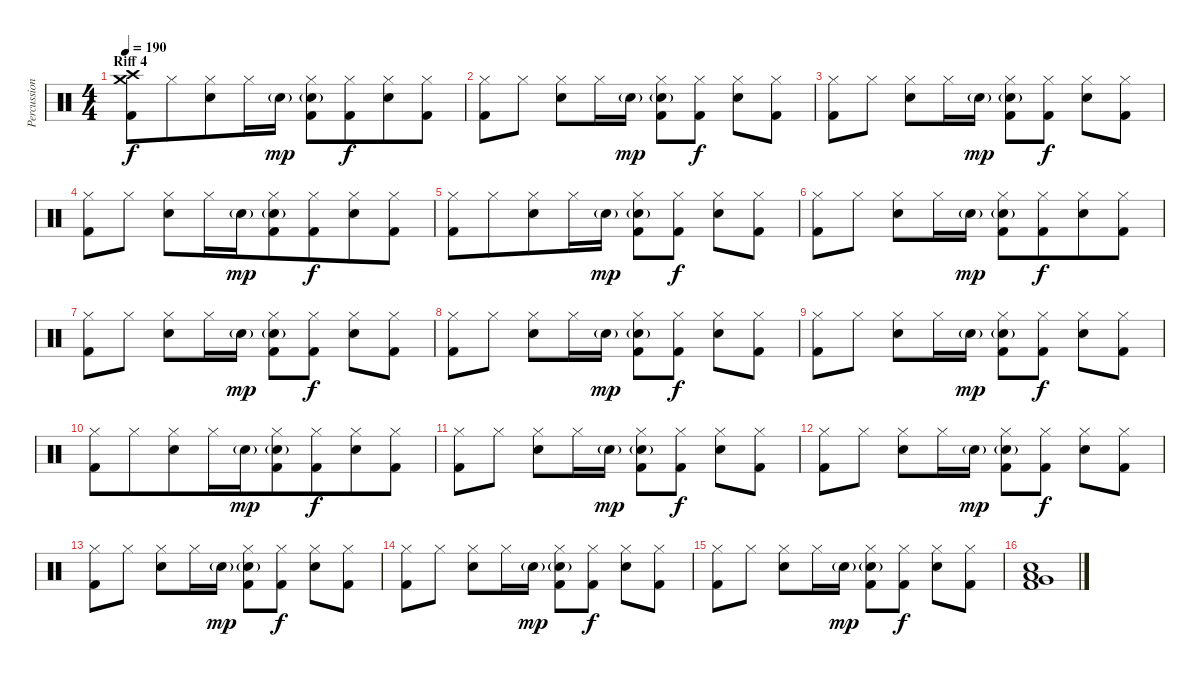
\track ("Percussion" "Percussion") {instrument percussion}
\staff {score}
\articulation defaults
\ts (4 4)
\section ("" "Riff 4")
\tempo 190
\clef neutral
\ks c
("Crash medium (hit)" "Crash high (hit)" "Kick (hit) 2").8{dy f beam merge} "Hi-Hat (closed)".8{beam merge} ("Hi-Hat (closed)" "Electric Snare (hit)").8 "Hi-Hat (closed)".16 "Electric Snare (hit)"{g}.16{dy mp} ("Hi-Hat (closed)" "Electric Snare (hit)"{g} "Kick (hit) 2").8 ("Hi-Hat (closed)" "Kick (hit) 2").8{dy f beam merge} ("Hi-Hat (closed)" "Electric Snare (hit)").8 ("Hi-Hat (closed)" "Kick (hit) 2").8 |
("Hi-Hat (closed)" "Kick (hit) 2").8 "Hi-Hat (closed)".8 ("Hi-Hat (closed)" "Electric Snare (hit)").8 "Hi-Hat (closed)".16 "Electric Snare (hit)"{g}.16{dy mp} ("Hi-Hat (closed)" "Electric Snare (hit)"{g} "Kick (hit) 2").8 ("Hi-Hat (closed)" "Kick (hit) 2").8{dy f} ("Hi-Hat (closed)" "Electric Snare (hit)").8 ("Hi-Hat (closed)" "Kick (hit) 2").8 |
("Hi-Hat (closed)" "Kick (hit) 2").8 "Hi-Hat (closed)".8 ("Hi-Hat (closed)" "Electric Snare (hit)").8 "Hi-Hat (closed)".16{beam merge} "Electric Snare (hit)"{g}.16{dy mp} ("Hi-Hat (closed)" "Electric Snare (hit)"{g} "Kick (hit) 2").8{beam merge} ("Hi-Hat (closed)" "Kick (hit) 2").8{dy f} ("Hi-Hat (closed)" "Electric Snare (hit)").8 ("Hi-Hat (closed)" "Kick (hit) 2").8 |
("Hi-Hat (closed)" "Kick (hit) 2").8 "Hi-Hat (closed)".8 ("Hi-Hat (closed)" "Electric Snare (hit)").8{beam merge} "Hi-Hat (closed)".16{beam merge} "Electric Snare (hit)"{g}.16{dy mp beam merge} ("Hi-Hat (closed)" "Electric Snare (hit)"{g} "Kick (hit) 2").8 ("Hi-Hat (closed)" "Kick (hit) 2").8{dy f beam merge} ("Hi-Hat (closed)" "Electric Snare (hit)").8{beam merge} ("Hi-Hat (closed)" "Kick (hit) 2").8 |
("Hi-Hat (closed)" "Kick (hit) 2").8{beam merge} "Hi-Hat (closed)".8{beam merge} ("Hi-Hat (closed)" "Electric Snare (hit)").8{beam merge} "Hi-Hat (closed)".16{beam merge} "Electric Snare (hit)"{g}.16{dy mp} ("Hi-Hat (closed)" "Electric Snare (hit)"{g} "Kick (hit) 2").8 ("Hi-Hat (closed)" "Kick (hit) 2").8{dy f} ("Hi-Hat (closed)" "Electric Snare (hit)").8 ("Hi-Hat (closed)" "Kick (hit) 2").8 |
("Hi-Hat (closed)" "Kick (hit) 2").8{beam merge} "Hi-Hat (closed)".8 ("Hi-Hat (closed)" "Electric Snare (hit)").8{beam merge} "Hi-Hat (closed)".16 "Electric Snare (hit)"{g}.16{dy mp} ("Hi-Hat (closed)" "Electric Snare (hit)"{g} "Kick (hit) 2").8 ("Hi-Hat (closed)" "Kick (hit) 2").8{dy f beam merge} ("Hi-Hat (closed)" "Electric Snare (hit)").8{beam merge} ("Hi-Hat (closed)" "Kick (hit) 2").8 |
("Hi-Hat (closed)" "Kick (hit) 2").8 "Hi-Hat (closed)".8 ("Hi-Hat (closed)" "Electric Snare (hit)").8 "Hi-Hat (closed)".16 "Electric Snare (hit)"{g}.16{dy mp} ("Hi-Hat (closed)" "Electric Snare (hit)"{g} "Kick (hit) 2").8 ("Hi-Hat (closed)" "Kick (hit) 2").8{dy f} ("Hi-Hat (closed)" "Electric Snare (hit)").8 ("Hi-Hat (closed)" "Kick (hit) 2").8 |
("Hi-Hat (closed)" "Kick (hit) 2").8 "Hi-Hat (closed)".8 ("Hi-Hat (closed)" "Electric Snare (hit)").8 "Hi-Hat (closed)".16 "Electric Snare (hit)"{g}.16{dy mp} ("Hi-Hat (closed)" "Electric Snare (hit)"{g} "Kick (hit) 2").8 ("Hi-Hat (closed)" "Kick (hit) 2").8{dy f} ("Hi-Hat (closed)" "Electric Snare (hit)").8 ("Hi-Hat (closed)" "Kick (hit) 2").8 |
("Hi-Hat (closed)" "Kick (hit) 2").8 "Hi-Hat (closed)".8 ("Hi-Hat (closed)" "Electric Snare (hit)").8 "Hi-Hat (closed)".16 "Electric Snare (hit)"{g}.16{dy mp} ("Hi-Hat (closed)" "Electric Snare (hit)"{g} "Kick (hit) 2").8 ("Hi-Hat (closed)" "Kick (hit) 2").8{dy f} ("Hi-Hat (closed)" "Electric Snare (hit)").8 ("Hi-Hat (closed)" "Kick (hit) 2").8 |
("Hi-Hat (closed)" "Kick (hit) 2").8{beam merge} "Hi-Hat (closed)".8{beam merge} ("Hi-Hat (closed)" "Electric Snare (hit)").8{beam merge} "Hi-Hat (closed)".16{beam merge} "Electric Snare (hit)"{g}.16{dy mp beam merge} ("Hi-Hat (closed)" "Electric Snare (hit)"{g} "Kick (hit) 2").8{beam merge} ("Hi-Hat (closed)" "Kick (hit) 2").8{dy f beam merge} ("Hi-Hat (closed)" "Electric Snare (hit)").8{beam merge} ("Hi-Hat (closed)" "Kick (hit) 2").8 |
("Hi-Hat (closed)" "Kick (hit) 2").8 "Hi-Hat (closed)".8 ("Hi-Hat (closed)" "Electric Snare (hit)").8 "Hi-Hat (closed)".16 "Electric Snare (hit)"{g}.16{dy mp} ("Hi-Hat (closed)" "Electric Snare (hit)"{g} "Kick (hit) 2").8 ("Hi-Hat (closed)" "Kick (hit) 2").8{dy f} ("Hi-Hat (closed)" "Electric Snare (hit)").8 ("Hi-Hat (closed)" "Kick (hit) 2").8 |
("Hi-Hat (closed)" "Kick (hit) 2").8 "Hi-Hat (closed)".8 ("Hi-Hat (closed)" "Electric Snare (hit)").8 "Hi-Hat (closed)".16 "Electric Snare (hit)"{g}.16{dy mp} ("Hi-Hat (closed)" "Electric Snare (hit)"{g} "Kick (hit) 2").8 ("Hi-Hat (closed)" "Kick (hit) 2").8{dy f} ("Hi-Hat (closed)" "Electric Snare (hit)").8 ("Hi-Hat (closed)" "Kick (hit) 2").8 |
("Hi-Hat (closed)" "Kick (hit) 2").8 "Hi-Hat (closed)".8 ("Hi-Hat (closed)" "Electric Snare (hit)").8 "Hi-Hat (closed)".16 "Electric Snare (hit)"{g}.16{dy mp} ("Hi-Hat (closed)" "Electric Snare (hit)"{g} "Kick (hit) 2").8 ("Hi-Hat (closed)" "Kick (hit) 2").8{dy f} ("Hi-Hat (closed)" "Electric Snare (hit)").8 ("Hi-Hat (closed)" "Kick (hit) 2").8 |
("Hi-Hat (closed)" "Kick (hit) 2").8 "Hi-Hat (closed)".8 ("Hi-Hat (closed)" "Electric Snare (hit)").8 "Hi-Hat (closed)".16 "Electric Snare (hit)"{g}.16{dy mp} ("Hi-Hat (closed)" "Electric Snare (hit)"{g} "Kick (hit) 2").8 ("Hi-Hat (closed)" "Kick (hit) 2").8{dy f} ("Hi-Hat (closed)" "Electric Snare (hit)").8 ("Hi-Hat (closed)" "Kick (hit) 2").8 |
("Hi-Hat (closed)" "Kick (hit) 2").8 "Hi-Hat (closed)".8 ("Hi-Hat (closed)" "Electric Snare (hit)").8 "Hi-Hat (closed)".16 "Electric Snare (hit)"{g}.16{dy mp} ("Hi-Hat (closed)" "Electric Snare (hit)"{g} "Kick (hit) 2").8 ("Hi-Hat (closed)" "Kick (hit) 2").8{dy f} ("Hi-Hat (closed)" "Electric Snare (hit)").8 ("Hi-Hat (closed)" "Kick (hit) 2").8 |
("Electric Snare (hit)" "Very Low Tom (hit)" "Low Floor Tom (hit)" "Kick (hit) 2").1
